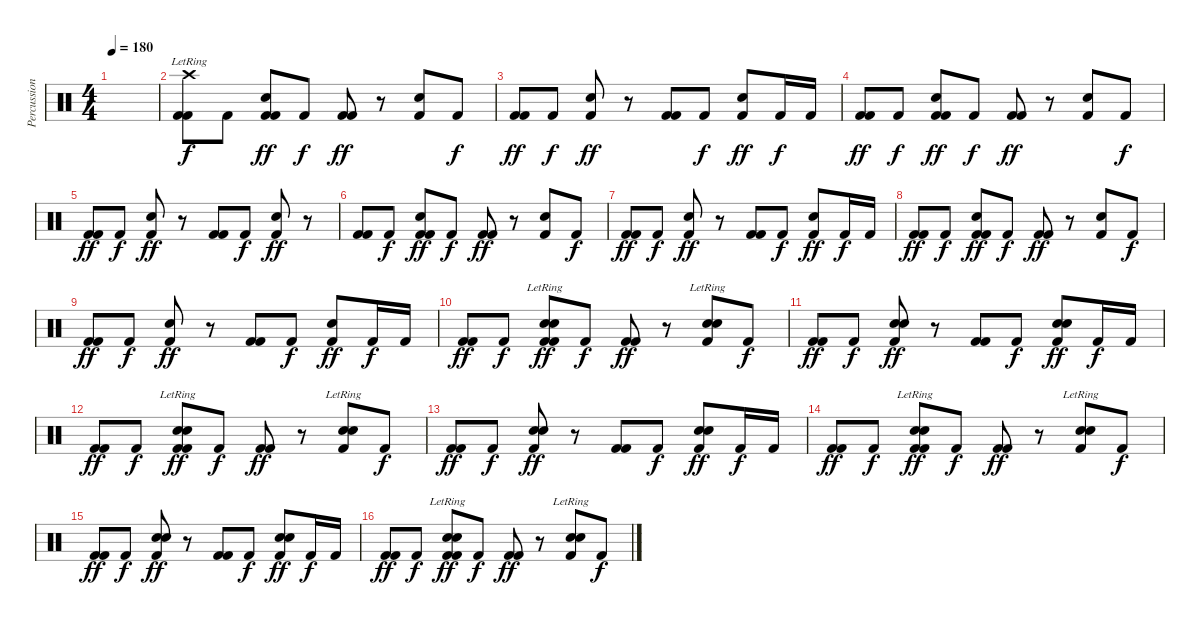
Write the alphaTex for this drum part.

\track ("Percussion" "Percussion") {instrument percussion}
\staff {score}
\articulation defaults
\ts (4 4)
\tempo 180
\clef neutral
\ks c
|
("Crash high (hit)"{lr} "Kick (hit) 2" "Kick (hit) 2").8 "Kick (hit) 2".8{dy f} ("Electric Snare (hit)" "Kick (hit) 2" "Kick (hit) 2").8{dy ff} "Kick (hit) 2".8{dy f} ("Kick (hit) 2" "Kick (hit) 2").8{dy ff} r.8 ("Electric Snare (hit)" "Kick (hit) 2").8 "Kick (hit) 2".8{dy f} |
("Kick (hit) 2" "Kick (hit) 2").8{dy ff} "Kick (hit) 2".8{dy f} ("Electric Snare (hit)" "Kick (hit) 2").8{dy ff} r.8 ("Kick (hit) 2" "Kick (hit) 2").8 "Kick (hit) 2".8{dy f} ("Electric Snare (hit)" "Kick (hit) 2").8{dy ff} "Kick (hit) 2".16{dy f} "Kick (hit) 2".16 |
("Kick (hit) 2" "Kick (hit) 2").8{dy ff} "Kick (hit) 2".8{dy f} ("Electric Snare (hit)" "Kick (hit) 2" "Kick (hit) 2").8{dy ff} "Kick (hit) 2".8{dy f} ("Kick (hit) 2" "Kick (hit) 2").8{dy ff} r.8 ("Electric Snare (hit)" "Kick (hit) 2").8 "Kick (hit) 2".8{dy f} |
("Kick (hit) 2" "Kick (hit) 2").8{dy ff} "Kick (hit) 2".8{dy f} ("Electric Snare (hit)" "Kick (hit) 2").8{dy ff} r.8 ("Kick (hit) 2" "Kick (hit) 2").8 "Kick (hit) 2".8{dy f} ("Electric Snare (hit)" "Kick (hit) 2").8{dy ff} r.8 |
("Kick (hit) 2" "Kick (hit) 2").8 "Kick (hit) 2".8{dy f} ("Electric Snare (hit)" "Kick (hit) 2" "Kick (hit) 2").8{dy ff} "Kick (hit) 2".8{dy f} ("Kick (hit) 2" "Kick (hit) 2").8{dy ff} r.8 ("Electric Snare (hit)" "Kick (hit) 2").8 "Kick (hit) 2".8{dy f} |
("Kick (hit) 2" "Kick (hit) 2").8{dy ff} "Kick (hit) 2".8{dy f} ("Electric Snare (hit)" "Kick (hit) 2").8{dy ff} r.8 ("Kick (hit) 2" "Kick (hit) 2").8 "Kick (hit) 2".8{dy f} ("Electric Snare (hit)" "Kick (hit) 2").8{dy ff} "Kick (hit) 2".16{dy f} "Kick (hit) 2".16 |
("Kick (hit) 2" "Kick (hit) 2").8{dy ff} "Kick (hit) 2".8{dy f} ("Electric Snare (hit)" "Kick (hit) 2" "Kick (hit) 2").8{dy ff} "Kick (hit) 2".8{dy f} ("Kick (hit) 2" "Kick (hit) 2").8{dy ff} r.8 ("Electric Snare (hit)" "Kick (hit) 2").8 "Kick (hit) 2".8{dy f} |
("Kick (hit) 2" "Kick (hit) 2").8{dy ff} "Kick (hit) 2".8{dy f} ("Electric Snare (hit)" "Kick (hit) 2").8{dy ff} r.8 ("Kick (hit) 2" "Kick (hit) 2").8 "Kick (hit) 2".8{dy f} ("Electric Snare (hit)" "Kick (hit) 2").8{dy ff} "Kick (hit) 2".16{dy f} "Kick (hit) 2".16 |
("Kick (hit) 2" "Kick (hit) 2").8{dy ff} "Kick (hit) 2".8{dy f} ("Snare (hit) 2"{lr} "Electric Snare (hit)" "Kick (hit) 2" "Kick (hit) 2").8{dy ff} "Kick (hit) 2".8{dy f} ("Kick (hit) 2" "Kick (hit) 2").8{dy ff} r.8 ("Snare (hit) 2"{lr} "Electric Snare (hit)" "Kick (hit) 2").8 "Kick (hit) 2".8{dy f} |
("Kick (hit) 2" "Kick (hit) 2").8{dy ff} "Kick (hit) 2".8{dy f} ("Snare (hit) 2" "Electric Snare (hit)" "Kick (hit) 2").8{dy ff} r.8 ("Kick (hit) 2" "Kick (hit) 2").8 "Kick (hit) 2".8{dy f} ("Snare (hit) 2" "Electric Snare (hit)" "Kick (hit) 2").8{dy ff} "Kick (hit) 2".16{dy f} "Kick (hit) 2".16 |
("Kick (hit) 2" "Kick (hit) 2").8{dy ff} "Kick (hit) 2".8{dy f} ("Snare (hit) 2"{lr} "Electric Snare (hit)" "Kick (hit) 2" "Kick (hit) 2").8{dy ff} "Kick (hit) 2".8{dy f} ("Kick (hit) 2" "Kick (hit) 2").8{dy ff} r.8 ("Snare (hit) 2"{lr} "Electric Snare (hit)" "Kick (hit) 2").8 "Kick (hit) 2".8{dy f} |
("Kick (hit) 2" "Kick (hit) 2").8{dy ff} "Kick (hit) 2".8{dy f} ("Snare (hit) 2" "Electric Snare (hit)" "Kick (hit) 2").8{dy ff} r.8 ("Kick (hit) 2" "Kick (hit) 2").8 "Kick (hit) 2".8{dy f} ("Snare (hit) 2" "Electric Snare (hit)" "Kick (hit) 2").8{dy ff} "Kick (hit) 2".16{dy f} "Kick (hit) 2".16 |
("Kick (hit) 2" "Kick (hit) 2").8{dy ff} "Kick (hit) 2".8{dy f} ("Snare (hit) 2"{lr} "Electric Snare (hit)" "Kick (hit) 2" "Kick (hit) 2").8{dy ff} "Kick (hit) 2".8{dy f} ("Kick (hit) 2" "Kick (hit) 2").8{dy ff} r.8 ("Snare (hit) 2"{lr} "Electric Snare (hit)" "Kick (hit) 2").8 "Kick (hit) 2".8{dy f} |
("Kick (hit) 2" "Kick (hit) 2").8{dy ff} "Kick (hit) 2".8{dy f} ("Snare (hit) 2" "Electric Snare (hit)" "Kick (hit) 2").8{dy ff} r.8 ("Kick (hit) 2" "Kick (hit) 2").8 "Kick (hit) 2".8{dy f} ("Snare (hit) 2" "Electric Snare (hit)" "Kick (hit) 2").8{dy ff} "Kick (hit) 2".16{dy f} "Kick (hit) 2".16 |
("Kick (hit) 2" "Kick (hit) 2").8{dy ff} "Kick (hit) 2".8{dy f} ("Snare (hit) 2"{lr} "Electric Snare (hit)" "Kick (hit) 2" "Kick (hit) 2").8{dy ff} "Kick (hit) 2".8{dy f} ("Kick (hit) 2" "Kick (hit) 2").8{dy ff} r.8 ("Snare (hit) 2"{lr} "Electric Snare (hit)" "Kick (hit) 2").8 "Kick (hit) 2".8{dy f}
